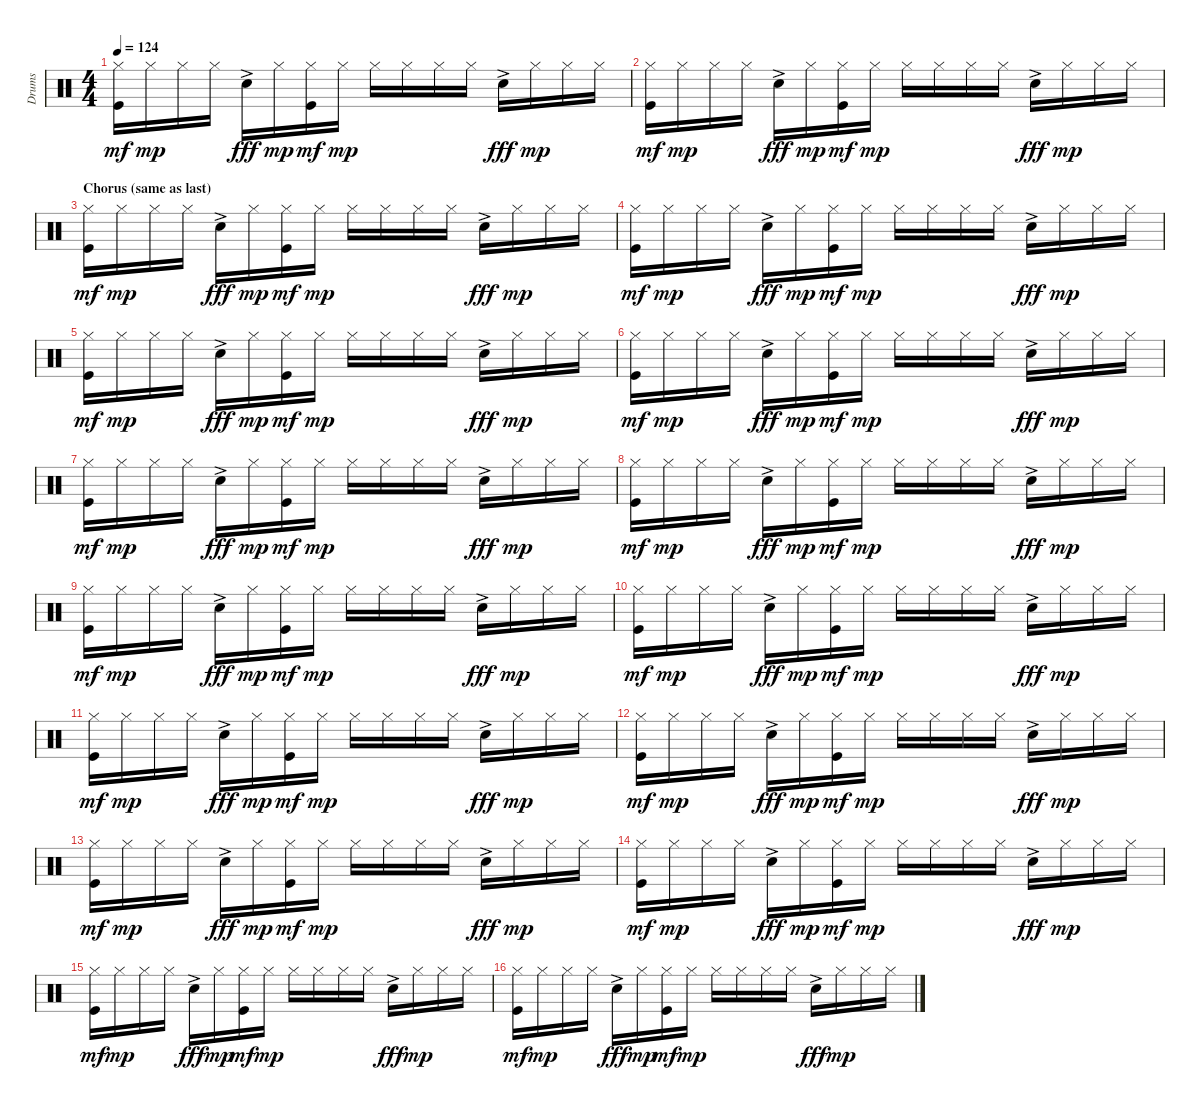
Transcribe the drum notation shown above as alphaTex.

\track ("Drums" "Drums") {instrument percussion}
\staff {score}
\articulation defaults
\ts (4 4)
\tempo 124
\clef neutral
\ks c
("Hi-Hat (closed)" "Kick (hit)").16{dy mf} "Hi-Hat (closed)".16{dy mp} "Hi-Hat (closed)".16 "Hi-Hat (closed)".16 "Snare (hit) 2"{ac}.16{dy fff} "Hi-Hat (closed)".16{dy mp} ("Hi-Hat (closed)" "Kick (hit)").16{dy mf} "Hi-Hat (closed)".16{dy mp} "Hi-Hat (closed)".16 "Hi-Hat (closed)".16 "Hi-Hat (closed)".16 "Hi-Hat (closed)".16 "Snare (hit) 2"{ac}.16{dy fff} "Hi-Hat (closed)".16{dy mp} "Hi-Hat (closed)".16 "Hi-Hat (closed)".16 |
("Hi-Hat (closed)" "Kick (hit)").16{dy mf} "Hi-Hat (closed)".16{dy mp} "Hi-Hat (closed)".16 "Hi-Hat (closed)".16 "Snare (hit) 2"{ac}.16{dy fff} "Hi-Hat (closed)".16{dy mp} ("Hi-Hat (closed)" "Kick (hit)").16{dy mf} "Hi-Hat (closed)".16{dy mp} "Hi-Hat (closed)".16 "Hi-Hat (closed)".16 "Hi-Hat (closed)".16 "Hi-Hat (closed)".16 "Snare (hit) 2"{ac}.16{dy fff} "Hi-Hat (closed)".16{dy mp} "Hi-Hat (closed)".16 "Hi-Hat (closed)".16 |
\section ("" "Chorus (same as last)")
("Hi-Hat (closed)" "Kick (hit)").16{dy mf} "Hi-Hat (closed)".16{dy mp} "Hi-Hat (closed)".16 "Hi-Hat (closed)".16 "Snare (hit) 2"{ac}.16{dy fff} "Hi-Hat (closed)".16{dy mp} ("Hi-Hat (closed)" "Kick (hit)").16{dy mf} "Hi-Hat (closed)".16{dy mp} "Hi-Hat (closed)".16 "Hi-Hat (closed)".16 "Hi-Hat (closed)".16 "Hi-Hat (closed)".16 "Snare (hit) 2"{ac}.16{dy fff} "Hi-Hat (closed)".16{dy mp} "Hi-Hat (closed)".16 "Hi-Hat (closed)".16 |
("Hi-Hat (closed)" "Kick (hit)").16{dy mf} "Hi-Hat (closed)".16{dy mp} "Hi-Hat (closed)".16 "Hi-Hat (closed)".16 "Snare (hit) 2"{ac}.16{dy fff} "Hi-Hat (closed)".16{dy mp} ("Hi-Hat (closed)" "Kick (hit)").16{dy mf} "Hi-Hat (closed)".16{dy mp} "Hi-Hat (closed)".16 "Hi-Hat (closed)".16 "Hi-Hat (closed)".16 "Hi-Hat (closed)".16 "Snare (hit) 2"{ac}.16{dy fff} "Hi-Hat (closed)".16{dy mp} "Hi-Hat (closed)".16 "Hi-Hat (closed)".16 |
("Hi-Hat (closed)" "Kick (hit)").16{dy mf} "Hi-Hat (closed)".16{dy mp} "Hi-Hat (closed)".16 "Hi-Hat (closed)".16 "Snare (hit) 2"{ac}.16{dy fff} "Hi-Hat (closed)".16{dy mp} ("Hi-Hat (closed)" "Kick (hit)").16{dy mf} "Hi-Hat (closed)".16{dy mp} "Hi-Hat (closed)".16 "Hi-Hat (closed)".16 "Hi-Hat (closed)".16 "Hi-Hat (closed)".16 "Snare (hit) 2"{ac}.16{dy fff} "Hi-Hat (closed)".16{dy mp} "Hi-Hat (closed)".16 "Hi-Hat (closed)".16 |
("Hi-Hat (closed)" "Kick (hit)").16{dy mf} "Hi-Hat (closed)".16{dy mp} "Hi-Hat (closed)".16 "Hi-Hat (closed)".16 "Snare (hit) 2"{ac}.16{dy fff} "Hi-Hat (closed)".16{dy mp} ("Hi-Hat (closed)" "Kick (hit)").16{dy mf} "Hi-Hat (closed)".16{dy mp} "Hi-Hat (closed)".16 "Hi-Hat (closed)".16 "Hi-Hat (closed)".16 "Hi-Hat (closed)".16 "Snare (hit) 2"{ac}.16{dy fff} "Hi-Hat (closed)".16{dy mp} "Hi-Hat (closed)".16 "Hi-Hat (closed)".16 |
("Hi-Hat (closed)" "Kick (hit)").16{dy mf} "Hi-Hat (closed)".16{dy mp} "Hi-Hat (closed)".16 "Hi-Hat (closed)".16 "Snare (hit) 2"{ac}.16{dy fff} "Hi-Hat (closed)".16{dy mp} ("Hi-Hat (closed)" "Kick (hit)").16{dy mf} "Hi-Hat (closed)".16{dy mp} "Hi-Hat (closed)".16 "Hi-Hat (closed)".16 "Hi-Hat (closed)".16 "Hi-Hat (closed)".16 "Snare (hit) 2"{ac}.16{dy fff} "Hi-Hat (closed)".16{dy mp} "Hi-Hat (closed)".16 "Hi-Hat (closed)".16 |
("Hi-Hat (closed)" "Kick (hit)").16{dy mf} "Hi-Hat (closed)".16{dy mp} "Hi-Hat (closed)".16 "Hi-Hat (closed)".16 "Snare (hit) 2"{ac}.16{dy fff} "Hi-Hat (closed)".16{dy mp} ("Hi-Hat (closed)" "Kick (hit)").16{dy mf} "Hi-Hat (closed)".16{dy mp} "Hi-Hat (closed)".16 "Hi-Hat (closed)".16 "Hi-Hat (closed)".16 "Hi-Hat (closed)".16 "Snare (hit) 2"{ac}.16{dy fff} "Hi-Hat (closed)".16{dy mp} "Hi-Hat (closed)".16 "Hi-Hat (closed)".16 |
("Hi-Hat (closed)" "Kick (hit)").16{dy mf} "Hi-Hat (closed)".16{dy mp} "Hi-Hat (closed)".16 "Hi-Hat (closed)".16 "Snare (hit) 2"{ac}.16{dy fff} "Hi-Hat (closed)".16{dy mp} ("Hi-Hat (closed)" "Kick (hit)").16{dy mf} "Hi-Hat (closed)".16{dy mp} "Hi-Hat (closed)".16 "Hi-Hat (closed)".16 "Hi-Hat (closed)".16 "Hi-Hat (closed)".16 "Snare (hit) 2"{ac}.16{dy fff} "Hi-Hat (closed)".16{dy mp} "Hi-Hat (closed)".16 "Hi-Hat (closed)".16 |
("Hi-Hat (closed)" "Kick (hit)").16{dy mf} "Hi-Hat (closed)".16{dy mp} "Hi-Hat (closed)".16 "Hi-Hat (closed)".16 "Snare (hit) 2"{ac}.16{dy fff} "Hi-Hat (closed)".16{dy mp} ("Hi-Hat (closed)" "Kick (hit)").16{dy mf} "Hi-Hat (closed)".16{dy mp} "Hi-Hat (closed)".16 "Hi-Hat (closed)".16 "Hi-Hat (closed)".16 "Hi-Hat (closed)".16 "Snare (hit) 2"{ac}.16{dy fff} "Hi-Hat (closed)".16{dy mp} "Hi-Hat (closed)".16 "Hi-Hat (closed)".16 |
("Hi-Hat (closed)" "Kick (hit)").16{dy mf} "Hi-Hat (closed)".16{dy mp} "Hi-Hat (closed)".16 "Hi-Hat (closed)".16 "Snare (hit) 2"{ac}.16{dy fff} "Hi-Hat (closed)".16{dy mp} ("Hi-Hat (closed)" "Kick (hit)").16{dy mf} "Hi-Hat (closed)".16{dy mp} "Hi-Hat (closed)".16 "Hi-Hat (closed)".16 "Hi-Hat (closed)".16 "Hi-Hat (closed)".16 "Snare (hit) 2"{ac}.16{dy fff} "Hi-Hat (closed)".16{dy mp} "Hi-Hat (closed)".16 "Hi-Hat (closed)".16 |
("Hi-Hat (closed)" "Kick (hit)").16{dy mf} "Hi-Hat (closed)".16{dy mp} "Hi-Hat (closed)".16 "Hi-Hat (closed)".16 "Snare (hit) 2"{ac}.16{dy fff} "Hi-Hat (closed)".16{dy mp} ("Hi-Hat (closed)" "Kick (hit)").16{dy mf} "Hi-Hat (closed)".16{dy mp} "Hi-Hat (closed)".16 "Hi-Hat (closed)".16 "Hi-Hat (closed)".16 "Hi-Hat (closed)".16 "Snare (hit) 2"{ac}.16{dy fff} "Hi-Hat (closed)".16{dy mp} "Hi-Hat (closed)".16 "Hi-Hat (closed)".16 |
("Hi-Hat (closed)" "Kick (hit)").16{dy mf} "Hi-Hat (closed)".16{dy mp} "Hi-Hat (closed)".16 "Hi-Hat (closed)".16 "Snare (hit) 2"{ac}.16{dy fff} "Hi-Hat (closed)".16{dy mp} ("Hi-Hat (closed)" "Kick (hit)").16{dy mf} "Hi-Hat (closed)".16{dy mp} "Hi-Hat (closed)".16 "Hi-Hat (closed)".16 "Hi-Hat (closed)".16 "Hi-Hat (closed)".16 "Snare (hit) 2"{ac}.16{dy fff} "Hi-Hat (closed)".16{dy mp} "Hi-Hat (closed)".16 "Hi-Hat (closed)".16 |
("Hi-Hat (closed)" "Kick (hit)").16{dy mf} "Hi-Hat (closed)".16{dy mp} "Hi-Hat (closed)".16 "Hi-Hat (closed)".16 "Snare (hit) 2"{ac}.16{dy fff} "Hi-Hat (closed)".16{dy mp} ("Hi-Hat (closed)" "Kick (hit)").16{dy mf} "Hi-Hat (closed)".16{dy mp} "Hi-Hat (closed)".16 "Hi-Hat (closed)".16 "Hi-Hat (closed)".16 "Hi-Hat (closed)".16 "Snare (hit) 2"{ac}.16{dy fff} "Hi-Hat (closed)".16{dy mp} "Hi-Hat (closed)".16 "Hi-Hat (closed)".16 |
("Hi-Hat (closed)" "Kick (hit)").16{dy mf} "Hi-Hat (closed)".16{dy mp} "Hi-Hat (closed)".16 "Hi-Hat (closed)".16 "Snare (hit) 2"{ac}.16{dy fff} "Hi-Hat (closed)".16{dy mp} ("Hi-Hat (closed)" "Kick (hit)").16{dy mf} "Hi-Hat (closed)".16{dy mp} "Hi-Hat (closed)".16 "Hi-Hat (closed)".16 "Hi-Hat (closed)".16 "Hi-Hat (closed)".16 "Snare (hit) 2"{ac}.16{dy fff} "Hi-Hat (closed)".16{dy mp} "Hi-Hat (closed)".16 "Hi-Hat (closed)".16 |
("Hi-Hat (closed)" "Kick (hit)").16{dy mf} "Hi-Hat (closed)".16{dy mp} "Hi-Hat (closed)".16 "Hi-Hat (closed)".16 "Snare (hit) 2"{ac}.16{dy fff} "Hi-Hat (closed)".16{dy mp} ("Hi-Hat (closed)" "Kick (hit)").16{dy mf} "Hi-Hat (closed)".16{dy mp} "Hi-Hat (closed)".16 "Hi-Hat (closed)".16 "Hi-Hat (closed)".16 "Hi-Hat (closed)".16 "Snare (hit) 2"{ac}.16{dy fff} "Hi-Hat (closed)".16{dy mp} "Hi-Hat (closed)".16 "Hi-Hat (closed)".16
